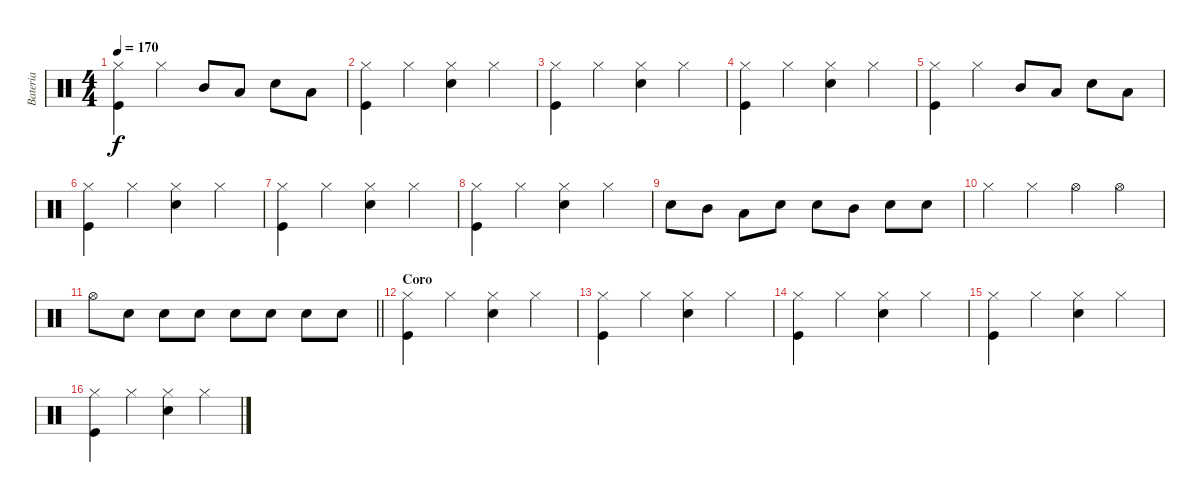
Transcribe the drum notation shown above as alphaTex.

\track ("Bateria" "Bateria") {instrument percussion}
\staff {score}
\articulation defaults
\ts (4 4)
\tempo 170
\clef neutral
\ks c
("Hi-Hat (closed)" "Kick (hit)").4{dy f} "Hi-Hat (closed)".4 "Mid Tom (hit)".8 "Low Tom (hit)".8 "Snare (hit) 2".8 "Low Tom (hit)".8 |
("Hi-Hat (closed)" "Kick (hit)").4 "Hi-Hat (closed)".4 ("Hi-Hat (closed)" "Snare (hit) 2").4 "Hi-Hat (closed)".4 |
("Hi-Hat (closed)" "Kick (hit)").4 "Hi-Hat (closed)".4 ("Hi-Hat (closed)" "Snare (hit) 2").4 "Hi-Hat (closed)".4 |
("Hi-Hat (closed)" "Kick (hit)").4 "Hi-Hat (closed)".4 ("Hi-Hat (closed)" "Snare (hit) 2").4 "Hi-Hat (closed)".4 |
("Hi-Hat (closed)" "Kick (hit)").4 "Hi-Hat (closed)".4 "Mid Tom (hit)".8 "Low Tom (hit)".8 "Snare (hit) 2".8 "Low Tom (hit)".8 |
("Hi-Hat (closed)" "Kick (hit)").4 "Hi-Hat (closed)".4 ("Hi-Hat (closed)" "Snare (hit) 2").4 "Hi-Hat (closed)".4 |
("Hi-Hat (closed)" "Kick (hit)").4 "Hi-Hat (closed)".4 ("Hi-Hat (closed)" "Snare (hit) 2").4 "Hi-Hat (closed)".4 |
("Hi-Hat (closed)" "Kick (hit)").4 "Hi-Hat (closed)".4 ("Hi-Hat (closed)" "Snare (hit) 2").4 "Hi-Hat (closed)".4 |
"Snare (hit) 2".8 "Mid Tom (hit)".8 "Low Tom (hit)".8 "Snare (hit) 2".8 "Snare (hit) 2".8 "Mid Tom (hit)".8 "Snare (hit) 2".8 "Snare (hit) 2".8 |
"Hi-Hat (closed)".4 "Hi-Hat (closed)".4 "Hi-Hat (open)".4 "Hi-Hat (open)".4 |
\barLineRight lightlight "Hi-Hat (open)".8 "Snare (hit) 2".8 "Snare (hit) 2".8 "Snare (hit) 2".8 "Snare (hit) 2".8 "Snare (hit) 2".8 "Snare (hit) 2".8 "Snare (hit) 2".8
|
\section ("" "Coro")
("Hi-Hat (closed)" "Kick (hit)").4 "Hi-Hat (closed)".4 ("Hi-Hat (closed)" "Snare (hit) 2").4 "Hi-Hat (closed)".4 |
("Hi-Hat (closed)" "Kick (hit)").4 "Hi-Hat (closed)".4 ("Hi-Hat (closed)" "Snare (hit) 2").4 "Hi-Hat (closed)".4 |
("Hi-Hat (closed)" "Kick (hit)").4 "Hi-Hat (closed)".4 ("Hi-Hat (closed)" "Snare (hit) 2").4 "Hi-Hat (closed)".4 |
("Hi-Hat (closed)" "Kick (hit)").4 "Hi-Hat (closed)".4 ("Hi-Hat (closed)" "Snare (hit) 2").4 "Hi-Hat (closed)".4 |
("Hi-Hat (closed)" "Kick (hit)").4 "Hi-Hat (closed)".4 ("Hi-Hat (closed)" "Snare (hit) 2").4 "Hi-Hat (closed)".4
